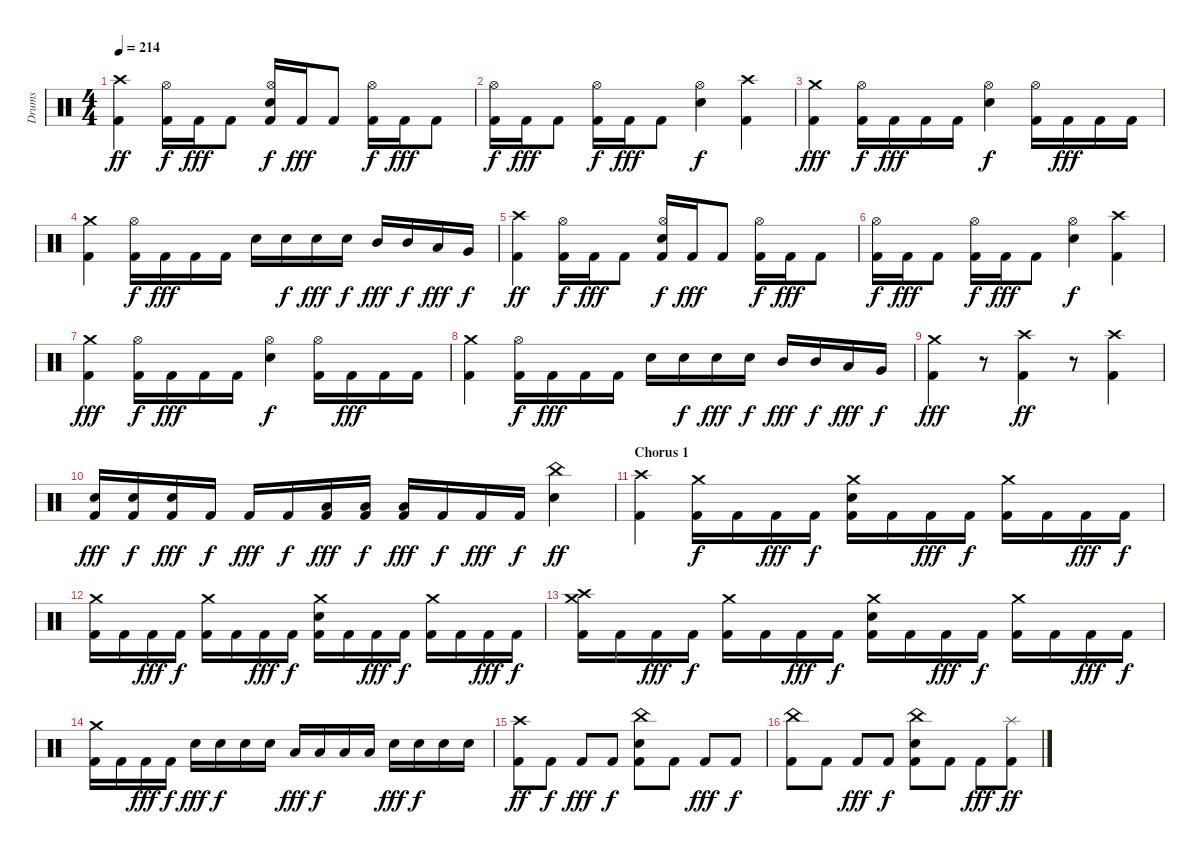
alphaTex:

\track ("Drums" "Drums") {instrument percussion}
\staff {score}
\articulation defaults
\ts (4 4)
\tempo 214
\clef neutral
\ks c
("Crash high (hit)" "Kick (hit) 2").4{dy ff} ("Hi-Hat (open)" "Kick (hit) 2").16{dy f} "Kick (hit) 2".16{dy fff} "Kick (hit) 2".8 ("Hi-Hat (open)" "Snare (hit) 2" "Kick (hit) 2").16{dy f} "Kick (hit) 2".16{dy fff} "Kick (hit) 2".8 ("Hi-Hat (open)" "Kick (hit) 2").16{dy f} "Kick (hit) 2".16{dy fff} "Kick (hit) 2".8 |
("Hi-Hat (open)" "Kick (hit) 2").16{dy f} "Kick (hit) 2".16{dy fff} "Kick (hit) 2".8 ("Hi-Hat (open)" "Kick (hit) 2").16{dy f} "Kick (hit) 2".16{dy fff} "Kick (hit) 2".8 ("Hi-Hat (open)" "Snare (hit) 2").4{dy f} ("Crash high (hit)" "Kick (hit) 2").4 |
("Crash medium (hit)" "Kick (hit) 2").4{dy fff} ("Hi-Hat (open)" "Kick (hit) 2").16{dy f} "Kick (hit) 2".16{dy fff} "Kick (hit) 2".16 "Kick (hit) 2".16 ("Hi-Hat (open)" "Snare (hit) 2").4{dy f} ("Hi-Hat (open)" "Kick (hit) 2").16 "Kick (hit) 2".16{dy fff} "Kick (hit) 2".16 "Kick (hit) 2".16 |
("Crash medium (hit)" "Kick (hit) 2").4 ("Hi-Hat (open)" "Kick (hit) 2").16{dy f} "Kick (hit) 2".16{dy fff} "Kick (hit) 2".16 "Kick (hit) 2".16 "Snare (hit) 2".16 "Snare (hit) 2".16{dy f} "Snare (hit) 2".16{dy fff} "Snare (hit) 2".16{dy f} "Mid Tom (hit)".16{dy fff} "Mid Tom (hit)".16{dy f} "Low Tom (hit)".16{dy fff} "Very Low Tom (hit)".16{dy f} |
("Crash high (hit)" "Kick (hit) 2").4{dy ff} ("Hi-Hat (open)" "Kick (hit) 2").16{dy f} "Kick (hit) 2".16{dy fff} "Kick (hit) 2".8 ("Hi-Hat (open)" "Snare (hit) 2" "Kick (hit) 2").16{dy f} "Kick (hit) 2".16{dy fff} "Kick (hit) 2".8 ("Hi-Hat (open)" "Kick (hit) 2").16{dy f} "Kick (hit) 2".16{dy fff} "Kick (hit) 2".8 |
("Hi-Hat (open)" "Kick (hit) 2").16{dy f} "Kick (hit) 2".16{dy fff} "Kick (hit) 2".8 ("Hi-Hat (open)" "Kick (hit) 2").16{dy f} "Kick (hit) 2".16{dy fff} "Kick (hit) 2".8 ("Hi-Hat (open)" "Snare (hit) 2").4{dy f} ("Crash high (hit)" "Kick (hit) 2").4 |
("Crash medium (hit)" "Kick (hit) 2").4{dy fff} ("Hi-Hat (open)" "Kick (hit) 2").16{dy f} "Kick (hit) 2".16{dy fff} "Kick (hit) 2".16 "Kick (hit) 2".16 ("Hi-Hat (open)" "Snare (hit) 2").4{dy f} ("Hi-Hat (open)" "Kick (hit) 2").16 "Kick (hit) 2".16{dy fff} "Kick (hit) 2".16 "Kick (hit) 2".16 |
("Crash medium (hit)" "Kick (hit) 2").4 ("Hi-Hat (open)" "Kick (hit) 2").16{dy f} "Kick (hit) 2".16{dy fff} "Kick (hit) 2".16 "Kick (hit) 2".16 "Snare (hit) 2".16 "Snare (hit) 2".16{dy f} "Snare (hit) 2".16{dy fff} "Snare (hit) 2".16{dy f} "Mid Tom (hit)".16{dy fff} "Mid Tom (hit)".16{dy f} "Low Tom (hit)".16{dy fff} "Very Low Tom (hit)".16{dy f} |
("Crash medium (hit)" "Kick (hit) 2").4{dy fff} r.8 ("Crash high (hit)" "Kick (hit) 2").4{dy ff} r.8 ("Crash high (hit)" "Kick (hit) 2").4 |
("Snare (hit) 2" "Kick (hit) 2").16{dy fff} ("Snare (hit) 2" "Kick (hit) 2").16{dy f} ("Snare (hit) 2" "Kick (hit) 2").16{dy fff} "Kick (hit) 2".16{dy f} "Kick (hit) 2".16{dy fff} "Kick (hit) 2".16{dy f} ("Low Tom (hit)" "Kick (hit) 2").16{dy fff} ("Low Tom (hit)" "Kick (hit) 2").16{dy f} ("Low Tom (hit)" "Kick (hit) 2").16{dy fff} "Kick (hit) 2".16{dy f} "Kick (hit) 2".16{dy fff} "Kick (hit) 2".16{dy f} ("China (hit)" "Snare (hit) 2").4{dy ff} |
\section ("" "Chorus 1")
("Crash high (hit)" "Kick (hit) 2").4 ("Crash medium (hit)" "Kick (hit) 2").16{dy f} "Kick (hit) 2".16 "Kick (hit) 2".16{dy fff} "Kick (hit) 2".16{dy f} ("Crash medium (hit)" "Snare (hit) 2" "Kick (hit) 2").16 "Kick (hit) 2".16 "Kick (hit) 2".16{dy fff} "Kick (hit) 2".16{dy f} ("Crash medium (hit)" "Kick (hit) 2").16 "Kick (hit) 2".16 "Kick (hit) 2".16{dy fff} "Kick (hit) 2".16{dy f} |
("Crash medium (hit)" "Kick (hit) 2").16 "Kick (hit) 2".16 "Kick (hit) 2".16{dy fff} "Kick (hit) 2".16{dy f} ("Crash medium (hit)" "Kick (hit) 2").16 "Kick (hit) 2".16 "Kick (hit) 2".16{dy fff} "Kick (hit) 2".16{dy f} ("Crash medium (hit)" "Snare (hit) 2" "Kick (hit) 2").16 "Kick (hit) 2".16 "Kick (hit) 2".16{dy fff} "Kick (hit) 2".16{dy f} ("Crash medium (hit)" "Kick (hit) 2").16 "Kick (hit) 2".16 "Kick (hit) 2".16{dy fff} "Kick (hit) 2".16{dy f} |
("Crash medium (hit)" "Crash high (hit)" "Kick (hit) 2").16 "Kick (hit) 2".16 "Kick (hit) 2".16{dy fff} "Kick (hit) 2".16{dy f} ("Crash medium (hit)" "Kick (hit) 2").16 "Kick (hit) 2".16 "Kick (hit) 2".16{dy fff} "Kick (hit) 2".16{dy f} ("Crash medium (hit)" "Snare (hit) 2" "Kick (hit) 2").16 "Kick (hit) 2".16 "Kick (hit) 2".16{dy fff} "Kick (hit) 2".16{dy f} ("Crash medium (hit)" "Kick (hit) 2").16 "Kick (hit) 2".16 "Kick (hit) 2".16{dy fff} "Kick (hit) 2".16{dy f} |
("Crash medium (hit)" "Kick (hit) 2").16 "Kick (hit) 2".16 "Kick (hit) 2".16{dy fff} "Kick (hit) 2".16{dy f} "Snare (hit) 2".16{dy fff} "Snare (hit) 2".16{dy f} "Snare (hit) 2".16 "Snare (hit) 2".16 "Low Tom (hit)".16{dy fff} "Low Tom (hit)".16{dy f} "Low Tom (hit)".16 "Low Tom (hit)".16 "Snare (hit) 2".16{dy fff} "Snare (hit) 2".16{dy f} "Snare (hit) 2".16 "Snare (hit) 2".16 |
("Crash high (hit)" "Kick (hit) 2").8{dy ff} "Kick (hit) 2".8{dy f} "Kick (hit) 2".8{dy fff} "Kick (hit) 2".8{dy f} ("China (hit)" "Snare (hit) 2" "Kick (hit) 2").8 "Kick (hit) 2".8 "Kick (hit) 2".8{dy fff} "Kick (hit) 2".8{dy f} |
("China (hit)" "Kick (hit) 2").8 "Kick (hit) 2".8 "Kick (hit) 2".8{dy fff} "Kick (hit) 2".8{dy f} ("China (hit)" "Snare (hit) 2" "Kick (hit) 2").8 "Kick (hit) 2".8 "Kick (hit) 2".8{dy fff} ("Splash (hit)" "Kick (hit) 2").8{dy ff}
